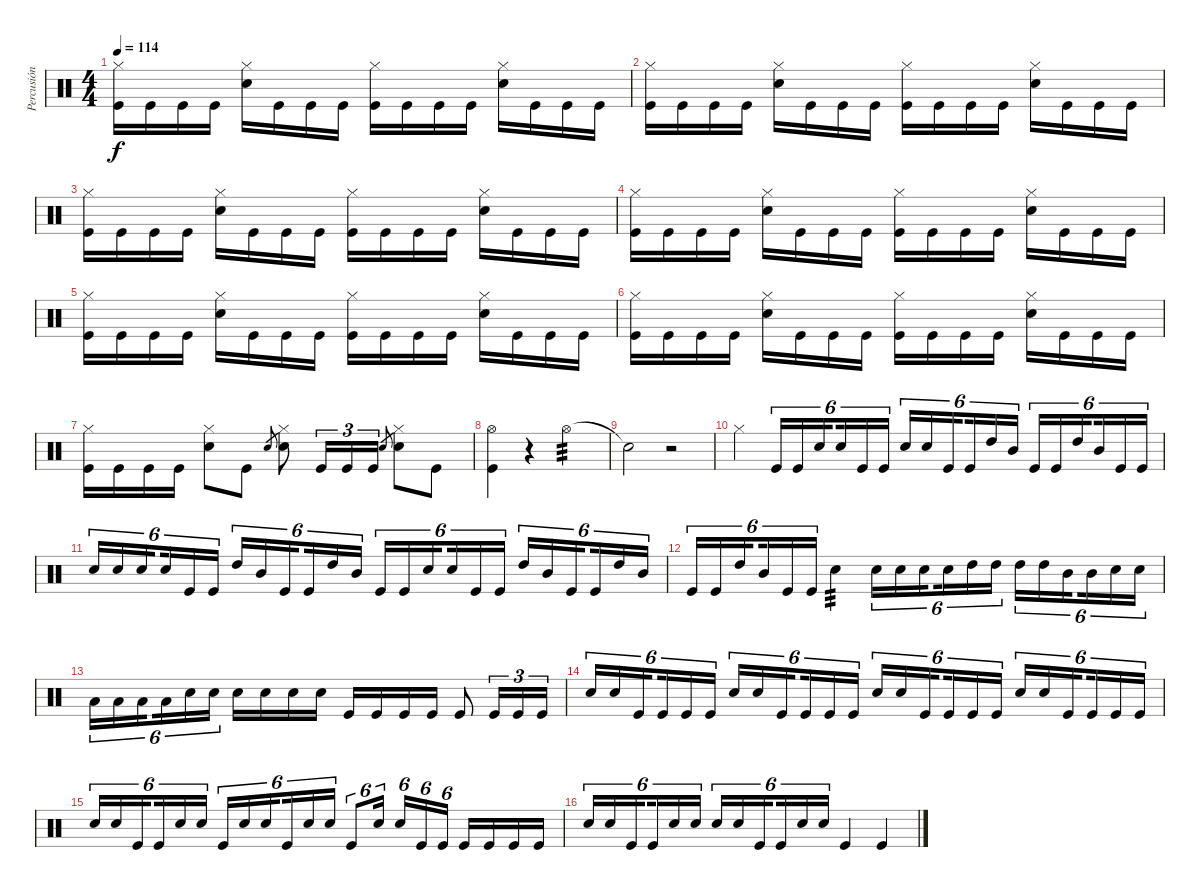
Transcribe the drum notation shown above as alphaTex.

\track ("Percusión" "Percusión") {instrument percussion}
\staff {score}
\articulation defaults
\ts (4 4)
\tempo 114
\clef neutral
\ks c
("Hi-Hat (closed)" "Kick (hit)").16{dy f} "Kick (hit)".16 "Kick (hit)".16 "Kick (hit)".16 ("Hi-Hat (closed)" "Snare (hit) 2").16 "Kick (hit)".16 "Kick (hit)".16 "Kick (hit)".16 ("Hi-Hat (closed)" "Kick (hit)").16 "Kick (hit)".16 "Kick (hit)".16 "Kick (hit)".16 ("Hi-Hat (closed)" "Snare (hit) 2").16 "Kick (hit)".16 "Kick (hit)".16 "Kick (hit)".16 |
("Hi-Hat (closed)" "Kick (hit)").16 "Kick (hit)".16 "Kick (hit)".16 "Kick (hit)".16 ("Hi-Hat (closed)" "Snare (hit) 2").16 "Kick (hit)".16 "Kick (hit)".16 "Kick (hit)".16 ("Hi-Hat (closed)" "Kick (hit)").16 "Kick (hit)".16 "Kick (hit)".16 "Kick (hit)".16 ("Hi-Hat (closed)" "Snare (hit) 2").16 "Kick (hit)".16 "Kick (hit)".16 "Kick (hit)".16 |
("Hi-Hat (closed)" "Kick (hit)").16 "Kick (hit)".16 "Kick (hit)".16 "Kick (hit)".16 ("Hi-Hat (closed)" "Snare (hit) 2").16 "Kick (hit)".16 "Kick (hit)".16 "Kick (hit)".16 ("Hi-Hat (closed)" "Kick (hit)").16 "Kick (hit)".16 "Kick (hit)".16 "Kick (hit)".16 ("Hi-Hat (closed)" "Snare (hit) 2").16 "Kick (hit)".16 "Kick (hit)".16 "Kick (hit)".16 |
("Hi-Hat (closed)" "Kick (hit)").16 "Kick (hit)".16 "Kick (hit)".16 "Kick (hit)".16 ("Hi-Hat (closed)" "Snare (hit) 2").16 "Kick (hit)".16 "Kick (hit)".16 "Kick (hit)".16 ("Hi-Hat (closed)" "Kick (hit)").16 "Kick (hit)".16 "Kick (hit)".16 "Kick (hit)".16 ("Hi-Hat (closed)" "Snare (hit) 2").16 "Kick (hit)".16 "Kick (hit)".16 "Kick (hit)".16 |
("Hi-Hat (closed)" "Kick (hit)").16 "Kick (hit)".16 "Kick (hit)".16 "Kick (hit)".16 ("Hi-Hat (closed)" "Snare (hit) 2").16 "Kick (hit)".16 "Kick (hit)".16 "Kick (hit)".16 ("Hi-Hat (closed)" "Kick (hit)").16 "Kick (hit)".16 "Kick (hit)".16 "Kick (hit)".16 ("Hi-Hat (closed)" "Snare (hit) 2").16 "Kick (hit)".16 "Kick (hit)".16 "Kick (hit)".16 |
("Hi-Hat (closed)" "Kick (hit)").16 "Kick (hit)".16 "Kick (hit)".16 "Kick (hit)".16 ("Hi-Hat (closed)" "Snare (hit) 2").16 "Kick (hit)".16 "Kick (hit)".16 "Kick (hit)".16 ("Hi-Hat (closed)" "Kick (hit)").16 "Kick (hit)".16 "Kick (hit)".16 "Kick (hit)".16 ("Hi-Hat (closed)" "Snare (hit) 2").16 "Kick (hit)".16 "Kick (hit)".16 "Kick (hit)".16 |
("Hi-Hat (closed)" "Kick (hit)").16 "Kick (hit)".16 "Kick (hit)".16 "Kick (hit)".16 ("Hi-Hat (closed)" "Snare (hit) 2").8 "Kick (hit)".8 "Snare (hit) 2".8{gr} ("Hi-Hat (closed)" "Snare (hit) 2").8 "Kick (hit)".16{tu (3 2)} "Kick (hit)".16{tu (3 2)} "Kick (hit)".16{tu (3 2)} "Snare (hit) 2".8{gr} ("Hi-Hat (closed)" "Snare (hit) 2").8 "Kick (hit)".8 |
("Hi-Hat (open)" "Kick (hit)").4 r.4 "Hi-Hat (open)".2{tp 3} |
"Snare (hit)"{t}.2 r.2 |
"Hi-Hat (closed)".4 "Kick (hit)".16{tu (6 4)} "Kick (hit)".16{tu (6 4)} "Snare (hit) 2".16{tu (6 4) beam splitsecondary} "Snare (hit) 2".16{tu (6 4)} "Kick (hit)".16{tu (6 4)} "Kick (hit)".16{tu (6 4)} "Snare (hit) 2".16{tu (6 4)} "Snare (hit) 2".16{tu (6 4)} "Kick (hit)".16{tu (6 4) beam splitsecondary} "Kick (hit)".16{tu (6 4)} "High Tom (hit)".16{tu (6 4)} "Mid Tom (hit)".16{tu (6 4)} "Kick (hit)".16{tu (6 4)} "Kick (hit)".16{tu (6 4)} "High Tom (hit)".16{tu (6 4) beam splitsecondary} "Mid Tom (hit)".16{tu (6 4)} "Kick (hit)".16{tu (6 4)} "Kick (hit)".16{tu (6 4)} |
"Snare (hit) 2".16{tu (6 4)} "Snare (hit) 2".16{tu (6 4)} "Snare (hit) 2".16{tu (6 4) beam splitsecondary} "Snare (hit) 2".16{tu (6 4)} "Kick (hit)".16{tu (6 4)} "Kick (hit)".16{tu (6 4)} "High Tom (hit)".16{tu (6 4)} "Mid Tom (hit)".16{tu (6 4)} "Kick (hit)".16{tu (6 4) beam splitsecondary} "Kick (hit)".16{tu (6 4)} "High Tom (hit)".16{tu (6 4)} "Mid Tom (hit)".16{tu (6 4)} "Kick (hit)".16{tu (6 4)} "Kick (hit)".16{tu (6 4)} "Snare (hit) 2".16{tu (6 4) beam splitsecondary} "Snare (hit) 2".16{tu (6 4)} "Kick (hit)".16{tu (6 4)} "Kick (hit)".16{tu (6 4)} "High Tom (hit)".16{tu (6 4)} "Mid Tom (hit)".16{tu (6 4)} "Kick (hit)".16{tu (6 4) beam splitsecondary} "Kick (hit)".16{tu (6 4)} "High Tom (hit)".16{tu (6 4)} "Mid Tom (hit)".16{tu (6 4)} |
"Kick (hit)".16{tu (6 4)} "Kick (hit)".16{tu (6 4)} "High Tom (hit)".16{tu (6 4) beam splitsecondary} "Mid Tom (hit)".16{tu (6 4)} "Kick (hit)".16{tu (6 4)} "Kick (hit)".16{tu (6 4)} "Snare (hit) 2".4{tp 3} "Snare (hit) 2".16{tu (6 4)} "Snare (hit) 2".16{tu (6 4)} "Snare (hit) 2".16{tu (6 4) beam splitsecondary} "Snare (hit) 2".16{tu (6 4)} "High Tom (hit)".16{tu (6 4)} "High Tom (hit)".16{tu (6 4)} "High Tom (hit)".16{tu (6 4)} "High Tom (hit)".16{tu (6 4)} "Mid Tom (hit)".16{tu (6 4) beam splitsecondary} "Mid Tom (hit)".16{tu (6 4)} "Snare (hit) 2".16{tu (6 4)} "Snare (hit) 2".16{tu (6 4)} |
"Low Tom (hit)".16{tu (6 4)} "Low Tom (hit)".16{tu (6 4)} "Low Tom (hit)".16{tu (6 4) beam splitsecondary} "Low Tom (hit)".16{tu (6 4)} "Snare (hit) 2".16{tu (6 4)} "Snare (hit) 2".16{tu (6 4)} "Snare (hit) 2".16 "Snare (hit) 2".16 "Snare (hit) 2".16 "Snare (hit) 2".16 "Kick (hit)".16 "Kick (hit)".16 "Kick (hit)".16 "Kick (hit)".16 "Kick (hit)".8 "Kick (hit)".16{tu (3 2)} "Kick (hit)".16{tu (3 2)} "Kick (hit)".16{tu (3 2)} |
"Snare (hit) 2".16{tu (6 4)} "Snare (hit) 2".16{tu (6 4)} "Kick (hit)".16{tu (6 4) beam splitsecondary} "Kick (hit)".16{tu (6 4)} "Kick (hit)".16{tu (6 4)} "Kick (hit)".16{tu (6 4)} "Snare (hit) 2".16{tu (6 4)} "Snare (hit) 2".16{tu (6 4)} "Kick (hit)".16{tu (6 4) beam splitsecondary} "Kick (hit)".16{tu (6 4)} "Kick (hit)".16{tu (6 4)} "Kick (hit)".16{tu (6 4)} "Snare (hit) 2".16{tu (6 4)} "Snare (hit) 2".16{tu (6 4)} "Kick (hit)".16{tu (6 4) beam splitsecondary} "Kick (hit)".16{tu (6 4)} "Kick (hit)".16{tu (6 4)} "Kick (hit)".16{tu (6 4)} "Snare (hit) 2".16{tu (6 4)} "Snare (hit) 2".16{tu (6 4)} "Kick (hit)".16{tu (6 4) beam splitsecondary} "Kick (hit)".16{tu (6 4)} "Kick (hit)".16{tu (6 4)} "Kick (hit)".16{tu (6 4)} |
"Snare (hit) 2".16{tu (6 4)} "Snare (hit) 2".16{tu (6 4)} "Kick (hit)".16{tu (6 4) beam splitsecondary} "Kick (hit)".16{tu (6 4)} "Snare (hit) 2".16{tu (6 4)} "Snare (hit) 2".16{tu (6 4)} "Kick (hit)".16{tu (6 4)} "Snare (hit) 2".16{tu (6 4)} "Snare (hit) 2".16{tu (6 4) beam splitsecondary} "Kick (hit)".16{tu (6 4)} "Snare (hit) 2".16{tu (6 4)} "Snare (hit) 2".16{tu (6 4)} "Kick (hit)".8{tu (6 4)} "Snare (hit) 2".16{tu (6 4) beam splitsecondary} "Snare (hit) 2".16{tu (6 4)} "Kick (hit)".16{tu (6 4)} "Kick (hit)".16{tu (6 4)} "Kick (hit)".16 "Kick (hit)".16 "Kick (hit)".16 "Kick (hit)".16 |
"Snare (hit) 2".16{tu (6 4)} "Snare (hit) 2".16{tu (6 4)} "Kick (hit)".16{tu (6 4) beam splitsecondary} "Kick (hit)".16{tu (6 4)} "Snare (hit) 2".16{tu (6 4)} "Snare (hit) 2".16{tu (6 4)} "Snare (hit) 2".16{tu (6 4)} "Snare (hit) 2".16{tu (6 4)} "Kick (hit)".16{tu (6 4) beam splitsecondary} "Kick (hit)".16{tu (6 4)} "Snare (hit) 2".16{tu (6 4)} "Snare (hit) 2".16{tu (6 4)} "Kick (hit)".4 "Kick (hit)".4
